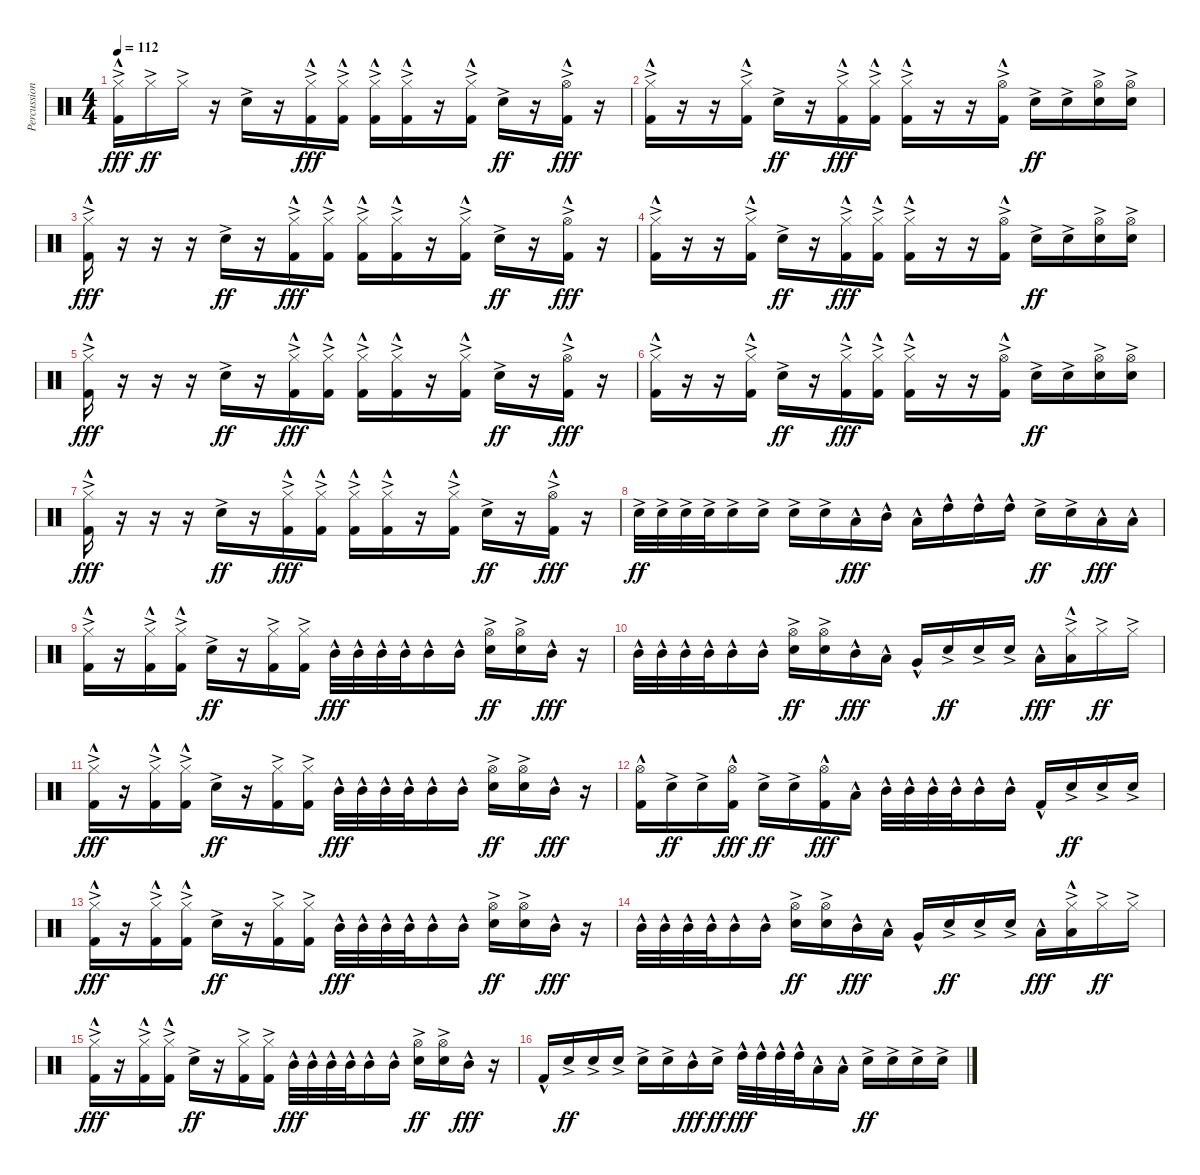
\track ("Percussion" "Percussion") {instrument percussion}
\staff {score}
\articulation defaults
\ts (4 4)
\tempo 112
\clef neutral
\ks c
("Hi-Hat (closed)"{ac} "Kick (hit) 2"{hac}).16{dy fff} "Hi-Hat (closed)"{ac}.16{dy ff} "Hi-Hat (closed)"{ac}.16 r.16 "Snare (hit) 2"{ac}.16 r.16 ("Hi-Hat (closed)"{ac} "Kick (hit) 2"{hac}).16{dy fff} ("Hi-Hat (closed)"{ac} "Kick (hit) 2"{hac}).16 ("Hi-Hat (closed)"{ac} "Kick (hit) 2"{hac}).16 ("Hi-Hat (closed)"{ac} "Kick (hit) 2"{hac}).16 r.16 ("Hi-Hat (closed)"{ac} "Kick (hit) 2"{hac}).16 "Snare (hit) 2"{ac}.16{dy ff} r.16 ("Hi-Hat (open)"{ac} "Kick (hit) 2"{hac}).16{dy fff} r.16 |
("Hi-Hat (closed)"{ac} "Kick (hit) 2"{hac}).16 r.16 r.16 ("Hi-Hat (closed)"{ac} "Kick (hit) 2"{hac}).16 "Snare (hit) 2"{ac}.16{dy ff} r.16 ("Hi-Hat (closed)"{ac} "Kick (hit) 2"{hac}).16{dy fff} ("Hi-Hat (closed)"{ac} "Kick (hit) 2"{hac}).16 ("Hi-Hat (closed)"{ac} "Kick (hit) 2"{hac}).16 r.16 r.16 ("Hi-Hat (open)"{ac} "Kick (hit) 2"{hac}).16 "Snare (hit) 2"{ac}.16{dy ff} "Snare (hit) 2"{ac}.16 ("Hi-Hat (open)"{ac} "Snare (hit) 2"{ac}).16 ("Hi-Hat (open)"{ac} "Snare (hit) 2"{ac}).16 |
("Hi-Hat (closed)"{ac} "Kick (hit) 2"{hac}).16{dy fff} r.16 r.16 r.16 "Snare (hit) 2"{ac}.16{dy ff} r.16 ("Hi-Hat (closed)"{ac} "Kick (hit) 2"{hac}).16{dy fff} ("Hi-Hat (closed)"{ac} "Kick (hit) 2"{hac}).16 ("Hi-Hat (closed)"{ac} "Kick (hit) 2"{hac}).16 ("Hi-Hat (closed)"{ac} "Kick (hit) 2"{hac}).16 r.16 ("Hi-Hat (closed)"{ac} "Kick (hit) 2"{hac}).16 "Snare (hit) 2"{ac}.16{dy ff} r.16 ("Hi-Hat (open)"{ac} "Kick (hit) 2"{hac}).16{dy fff} r.16 |
("Hi-Hat (closed)"{ac} "Kick (hit) 2"{hac}).16 r.16 r.16 ("Hi-Hat (closed)"{ac} "Kick (hit) 2"{hac}).16 "Snare (hit) 2"{ac}.16{dy ff} r.16 ("Hi-Hat (closed)"{ac} "Kick (hit) 2"{hac}).16{dy fff} ("Hi-Hat (closed)"{ac} "Kick (hit) 2"{hac}).16 ("Hi-Hat (closed)"{ac} "Kick (hit) 2"{hac}).16 r.16 r.16 ("Hi-Hat (open)"{ac} "Kick (hit) 2"{hac}).16 "Snare (hit) 2"{ac}.16{dy ff} "Snare (hit) 2"{ac}.16 ("Hi-Hat (open)"{ac} "Snare (hit) 2"{ac}).16 ("Hi-Hat (open)"{ac} "Snare (hit) 2"{ac}).16 |
("Hi-Hat (closed)"{ac} "Kick (hit) 2"{hac}).16{dy fff} r.16 r.16 r.16 "Snare (hit) 2"{ac}.16{dy ff} r.16 ("Hi-Hat (closed)"{ac} "Kick (hit) 2"{hac}).16{dy fff} ("Hi-Hat (closed)"{ac} "Kick (hit) 2"{hac}).16 ("Hi-Hat (closed)"{ac} "Kick (hit) 2"{hac}).16 ("Hi-Hat (closed)"{ac} "Kick (hit) 2"{hac}).16 r.16 ("Hi-Hat (closed)"{ac} "Kick (hit) 2"{hac}).16 "Snare (hit) 2"{ac}.16{dy ff} r.16 ("Hi-Hat (open)"{ac} "Kick (hit) 2"{hac}).16{dy fff} r.16 |
("Hi-Hat (closed)"{ac} "Kick (hit) 2"{hac}).16 r.16 r.16 ("Hi-Hat (closed)"{ac} "Kick (hit) 2"{hac}).16 "Snare (hit) 2"{ac}.16{dy ff} r.16 ("Hi-Hat (closed)"{ac} "Kick (hit) 2"{hac}).16{dy fff} ("Hi-Hat (closed)"{ac} "Kick (hit) 2"{hac}).16 ("Hi-Hat (closed)"{ac} "Kick (hit) 2"{hac}).16 r.16 r.16 ("Hi-Hat (open)"{ac} "Kick (hit) 2"{hac}).16 "Snare (hit) 2"{ac}.16{dy ff} "Snare (hit) 2"{ac}.16 ("Hi-Hat (open)"{ac} "Snare (hit) 2"{ac}).16 ("Hi-Hat (open)"{ac} "Snare (hit) 2"{ac}).16 |
("Hi-Hat (closed)"{ac} "Kick (hit) 2"{hac}).16{dy fff} r.16 r.16 r.16 "Snare (hit) 2"{ac}.16{dy ff} r.16 ("Hi-Hat (closed)"{ac} "Kick (hit) 2"{hac}).16{dy fff} ("Hi-Hat (closed)"{ac} "Kick (hit) 2"{hac}).16 ("Hi-Hat (closed)"{ac} "Kick (hit) 2"{hac}).16 ("Hi-Hat (closed)"{ac} "Kick (hit) 2"{hac}).16 r.16 ("Hi-Hat (closed)"{ac} "Kick (hit) 2"{hac}).16 "Snare (hit) 2"{ac}.16{dy ff} r.16 ("Hi-Hat (open)"{ac} "Kick (hit) 2"{hac}).16{dy fff} r.16 |
"Snare (hit) 2"{ac}.32{dy ff} "Snare (hit) 2"{ac}.32 "Snare (hit) 2"{ac}.32 "Snare (hit) 2"{ac}.32 "Snare (hit) 2"{ac}.16 "Snare (hit) 2"{ac}.16 "Snare (hit) 2"{ac}.16 "Snare (hit) 2"{ac}.16 "Low Tom (hit)"{hac}.16{dy fff} "Mid Tom (hit)"{hac}.16 "Low Tom (hit)"{hac}.16 "High Tom (hit)"{hac}.16 "High Tom (hit)"{hac}.16 "High Tom (hit)"{hac}.16 "Snare (hit) 2"{ac}.16{dy ff} "Snare (hit) 2"{ac}.16 "Low Tom (hit)"{hac}.16{dy fff} "Low Tom (hit)"{hac}.16 |
("Hi-Hat (closed)"{ac} "Kick (hit) 2"{hac}).16 r.16 ("Hi-Hat (closed)"{ac} "Kick (hit) 2"{hac}).16 ("Hi-Hat (closed)"{ac} "Kick (hit) 2"{hac}).16 "Snare (hit) 2"{ac}.16{dy ff} r.16 ("Hi-Hat (closed)"{ac} "Kick (hit) 2"{ac}).16 ("Hi-Hat (closed)"{ac} "Kick (hit) 2"{ac}).16 "Mid Tom (hit)"{hac}.32{dy fff} "Mid Tom (hit)"{hac}.32 "Mid Tom (hit)"{hac}.32 "Mid Tom (hit)"{hac}.32 "Mid Tom (hit)"{hac}.16 "Mid Tom (hit)"{hac}.16 ("Hi-Hat (open)"{ac} "Snare (hit) 2"{ac}).16{dy ff} ("Hi-Hat (open)"{ac} "Snare (hit) 2"{ac}).16 "Mid Tom (hit)"{hac}.16{dy fff} r.16 |
"Mid Tom (hit)"{hac}.32 "Mid Tom (hit)"{hac}.32 "Mid Tom (hit)"{hac}.32 "Mid Tom (hit)"{hac}.32 "Mid Tom (hit)"{hac}.16 "Mid Tom (hit)"{hac}.16 ("Hi-Hat (open)"{ac} "Snare (hit) 2"{ac}).16{dy ff} ("Hi-Hat (open)"{ac} "Snare (hit) 2"{ac}).16 "Mid Tom (hit)"{hac}.16{dy fff} "Low Tom (hit)"{hac}.16 "Very Low Tom (hit)"{hac}.16 "Snare (hit) 2"{ac}.16{dy ff} "Snare (hit) 2"{ac}.16 "Snare (hit) 2"{ac}.16 "Low Tom (hit)"{hac}.16{dy fff} ("Hi-Hat (closed)"{ac} "Low Tom (hit)"{hac}).16 "Hi-Hat (closed)"{ac}.16{dy ff} "Hi-Hat (closed)"{ac}.16 |
("Hi-Hat (closed)"{ac} "Kick (hit) 2"{hac}).16{dy fff} r.16 ("Hi-Hat (closed)"{ac} "Kick (hit) 2"{hac}).16 ("Hi-Hat (closed)"{ac} "Kick (hit) 2"{hac}).16 "Snare (hit) 2"{ac}.16{dy ff} r.16 ("Hi-Hat (closed)"{ac} "Kick (hit) 2"{ac}).16 ("Hi-Hat (closed)"{ac} "Kick (hit) 2"{ac}).16 "Mid Tom (hit)"{hac}.32{dy fff} "Mid Tom (hit)"{hac}.32 "Mid Tom (hit)"{hac}.32 "Mid Tom (hit)"{hac}.32 "Mid Tom (hit)"{hac}.16 "Mid Tom (hit)"{hac}.16 ("Hi-Hat (open)"{ac} "Snare (hit) 2"{ac}).16{dy ff} ("Hi-Hat (open)"{ac} "Snare (hit) 2"{ac}).16 "Mid Tom (hit)"{hac}.16{dy fff} r.16 |
("Hi-Hat (open)" "Kick (hit) 2"{hac}).16 "Snare (hit) 2"{ac}.16{dy ff} "Snare (hit) 2"{ac}.16 ("Hi-Hat (open)" "Kick (hit) 2"{hac}).16{dy fff} "Snare (hit) 2"{ac}.16{dy ff} "Snare (hit) 2"{ac}.16 ("Hi-Hat (open)" "Kick (hit) 2"{hac}).16{dy fff} "Low Tom (hit)"{hac}.16 "Mid Tom (hit)"{hac}.32 "Mid Tom (hit)"{hac}.32 "Mid Tom (hit)"{hac}.32 "Mid Tom (hit)"{hac}.32 "Mid Tom (hit)"{hac}.16 "Mid Tom (hit)"{hac}.16 "Kick (hit) 2"{hac}.16 "Snare (hit) 2"{ac}.16{dy ff} "Snare (hit) 2"{ac}.16 "Snare (hit) 2"{ac}.16 |
("Hi-Hat (closed)"{ac} "Kick (hit) 2"{hac}).16{dy fff} r.16 ("Hi-Hat (closed)"{ac} "Kick (hit) 2"{hac}).16 ("Hi-Hat (closed)"{ac} "Kick (hit) 2"{hac}).16 "Snare (hit) 2"{ac}.16{dy ff} r.16 ("Hi-Hat (closed)"{ac} "Kick (hit) 2"{ac}).16 ("Hi-Hat (closed)"{ac} "Kick (hit) 2"{ac}).16 "Mid Tom (hit)"{hac}.32{dy fff} "Mid Tom (hit)"{hac}.32 "Mid Tom (hit)"{hac}.32 "Mid Tom (hit)"{hac}.32 "Mid Tom (hit)"{hac}.16 "Mid Tom (hit)"{hac}.16 ("Hi-Hat (open)"{ac} "Snare (hit) 2"{ac}).16{dy ff} ("Hi-Hat (open)"{ac} "Snare (hit) 2"{ac}).16 "Mid Tom (hit)"{hac}.16{dy fff} r.16 |
"Mid Tom (hit)"{hac}.32 "Mid Tom (hit)"{hac}.32 "Mid Tom (hit)"{hac}.32 "Mid Tom (hit)"{hac}.32 "Mid Tom (hit)"{hac}.16 "Mid Tom (hit)"{hac}.16 ("Hi-Hat (open)"{ac} "Snare (hit) 2"{ac}).16{dy ff} ("Hi-Hat (open)"{ac} "Snare (hit) 2"{ac}).16 "Mid Tom (hit)"{hac}.16{dy fff} "Low Tom (hit)"{hac}.16 "Very Low Tom (hit)"{hac}.16 "Snare (hit) 2"{ac}.16{dy ff} "Snare (hit) 2"{ac}.16 "Snare (hit) 2"{ac}.16 "Low Tom (hit)"{hac}.16{dy fff} ("Hi-Hat (closed)"{ac} "Low Tom (hit)"{hac}).16 "Hi-Hat (closed)"{ac}.16{dy ff} "Hi-Hat (closed)"{ac}.16 |
("Hi-Hat (closed)"{ac} "Kick (hit) 2"{hac}).16{dy fff} r.16 ("Hi-Hat (closed)"{ac} "Kick (hit) 2"{hac}).16 ("Hi-Hat (closed)"{ac} "Kick (hit) 2"{hac}).16 "Snare (hit) 2"{ac}.16{dy ff} r.16 ("Hi-Hat (closed)"{ac} "Kick (hit) 2"{ac}).16 ("Hi-Hat (closed)"{ac} "Kick (hit) 2"{ac}).16 "Mid Tom (hit)"{hac}.32{dy fff} "Mid Tom (hit)"{hac}.32 "Mid Tom (hit)"{hac}.32 "Mid Tom (hit)"{hac}.32 "Mid Tom (hit)"{hac}.16 "Mid Tom (hit)"{hac}.16 ("Hi-Hat (open)"{ac} "Snare (hit) 2"{ac}).16{dy ff} ("Hi-Hat (open)"{ac} "Snare (hit) 2"{ac}).16 "Mid Tom (hit)"{hac}.16{dy fff} r.16 |
"Kick (hit) 2"{hac}.16 "Snare (hit) 2"{ac}.16{dy ff} "Snare (hit) 2"{ac}.16 "Snare (hit) 2"{ac}.16 "Snare (hit) 2"{ac}.16 "Snare (hit) 2"{ac}.16 "Mid Tom (hit)"{hac}.16{dy fff} "Snare (hit) 2"{ac}.16{dy ff} "High Tom (hit)"{hac}.32{dy fff} "High Tom (hit)"{hac}.32 "High Tom (hit)"{hac}.32 "High Tom (hit)"{hac}.32 "Low Tom (hit)"{hac}.16 "Low Tom (hit)"{hac}.16 "Snare (hit) 2"{ac}.16{dy ff} "Snare (hit) 2"{ac}.16 "Snare (hit) 2"{ac}.16 "Snare (hit) 2"{ac}.16
